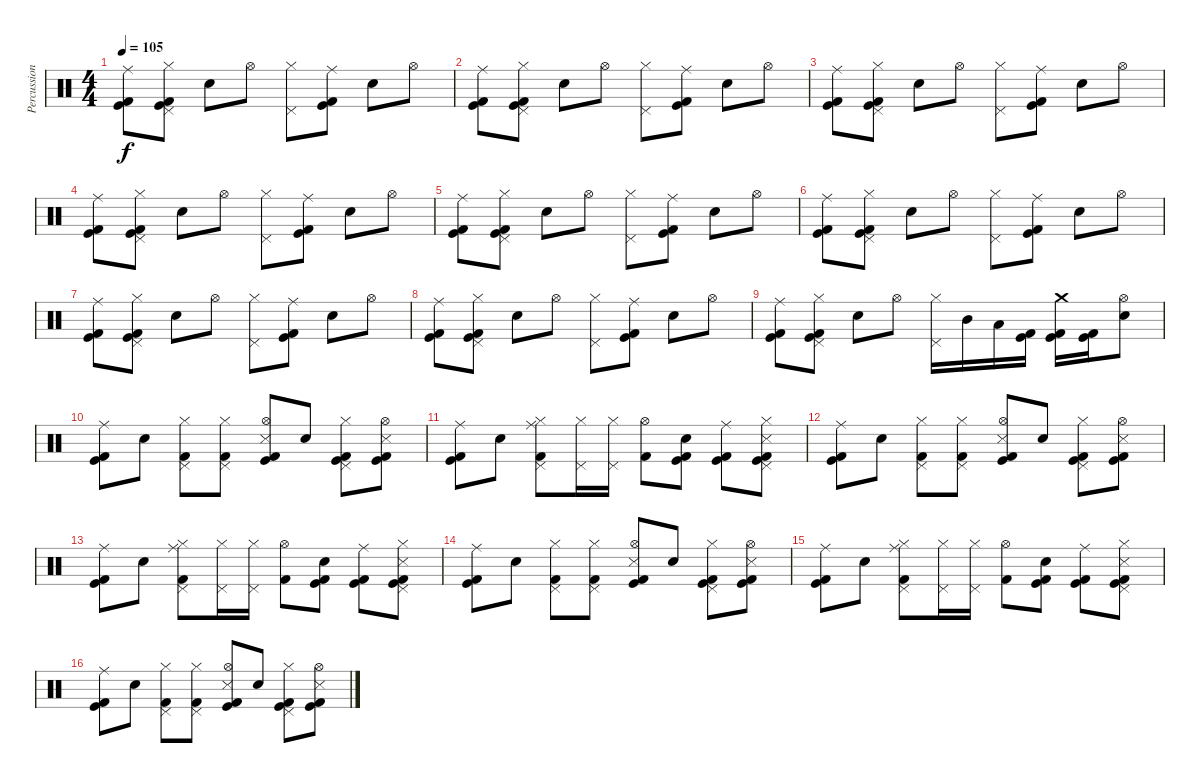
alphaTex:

\track ("Percussion" "Percussion") {instrument percussion}
\staff {score}
\articulation defaults
\ts (4 4)
\tempo 105
\clef neutral
\ks c
("Ride (middle)" "Kick (hit)" "Kick (hit) 2").8{dy f} ("Kick (hit) 2" "Kick (hit)" "Pedal Hi-Hat (hit)" "Hi-Hat (closed)").8 "Snare (hit) 2".8 "Hi-Hat (open)".8 ("Pedal Hi-Hat (hit)" "Hi-Hat (closed)").8 ("Kick (hit) 2" "Kick (hit)" "Ride (middle)").8 "Snare (hit) 2".8 "Hi-Hat (open)".8 |
("Ride (middle)" "Kick (hit)" "Kick (hit) 2").8 ("Kick (hit) 2" "Kick (hit)" "Pedal Hi-Hat (hit)" "Hi-Hat (closed)").8 "Snare (hit) 2".8 "Hi-Hat (open)".8 ("Pedal Hi-Hat (hit)" "Hi-Hat (closed)").8 ("Kick (hit) 2" "Kick (hit)" "Ride (middle)").8 "Snare (hit) 2".8 "Hi-Hat (open)".8 |
("Ride (middle)" "Kick (hit)" "Kick (hit) 2").8 ("Kick (hit) 2" "Kick (hit)" "Pedal Hi-Hat (hit)" "Hi-Hat (closed)").8 "Snare (hit) 2".8 "Hi-Hat (open)".8 ("Pedal Hi-Hat (hit)" "Hi-Hat (closed)").8 ("Kick (hit) 2" "Kick (hit)" "Ride (middle)").8 "Snare (hit) 2".8 "Hi-Hat (open)".8 |
("Ride (middle)" "Kick (hit)" "Kick (hit) 2").8 ("Kick (hit) 2" "Kick (hit)" "Pedal Hi-Hat (hit)" "Hi-Hat (closed)").8 "Snare (hit) 2".8 "Hi-Hat (open)".8 ("Pedal Hi-Hat (hit)" "Hi-Hat (closed)").8 ("Kick (hit) 2" "Kick (hit)" "Ride (middle)").8 "Snare (hit) 2".8 "Hi-Hat (open)".8 |
("Ride (middle)" "Kick (hit)" "Kick (hit) 2").8 ("Kick (hit) 2" "Kick (hit)" "Pedal Hi-Hat (hit)" "Hi-Hat (closed)").8 "Snare (hit) 2".8 "Hi-Hat (open)".8 ("Pedal Hi-Hat (hit)" "Hi-Hat (closed)").8 ("Kick (hit) 2" "Kick (hit)" "Ride (middle)").8 "Snare (hit) 2".8 "Hi-Hat (open)".8 |
("Ride (middle)" "Kick (hit)" "Kick (hit) 2").8 ("Kick (hit) 2" "Kick (hit)" "Pedal Hi-Hat (hit)" "Hi-Hat (closed)").8 "Snare (hit) 2".8 "Hi-Hat (open)".8 ("Pedal Hi-Hat (hit)" "Hi-Hat (closed)").8 ("Kick (hit) 2" "Kick (hit)" "Ride (middle)").8 "Snare (hit) 2".8 "Hi-Hat (open)".8 |
("Ride (middle)" "Kick (hit)" "Kick (hit) 2").8 ("Kick (hit) 2" "Kick (hit)" "Pedal Hi-Hat (hit)" "Hi-Hat (closed)").8 "Snare (hit) 2".8 "Hi-Hat (open)".8 ("Pedal Hi-Hat (hit)" "Hi-Hat (closed)").8 ("Kick (hit) 2" "Kick (hit)" "Ride (middle)").8 "Snare (hit) 2".8 "Hi-Hat (open)".8 |
("Ride (middle)" "Kick (hit)" "Kick (hit) 2").8 ("Kick (hit) 2" "Kick (hit)" "Pedal Hi-Hat (hit)" "Hi-Hat (closed)").8 "Snare (hit) 2".8 "Hi-Hat (open)".8 ("Pedal Hi-Hat (hit)" "Hi-Hat (closed)").8 ("Kick (hit) 2" "Kick (hit)" "Ride (middle)").8 "Snare (hit) 2".8 "Hi-Hat (open)".8 |
("Ride (middle)" "Kick (hit)" "Kick (hit) 2").8 ("Kick (hit) 2" "Kick (hit)" "Pedal Hi-Hat (hit)" "Hi-Hat (closed)").8 "Snare (hit) 2".8 "Hi-Hat (open)".8 ("Pedal Hi-Hat (hit)" "Hi-Hat (closed)").16 "Mid Tom (hit)".16 "Low Tom (hit)".16 ("Kick (hit) 2" "Kick (hit)").16 ("Kick (hit) 2" "Kick (hit)" "Crash medium (hit)").16 ("Kick (hit) 2" "Kick (hit)").16 ("Snare (hit) 2" "Hi-Hat (open)").8 |
("Ride (middle)" "Kick (hit)" "Kick (hit) 2").8{volume 16} "Snare (hit) 2".8{volume 16} ("Hi-Hat (closed)" "Pedal Hi-Hat (hit)" "Kick (hit) 2").8{volume 16} ("Hi-Hat (closed)" "Pedal Hi-Hat (hit)" "Kick (hit) 2").8{volume 16} ("Snare (side stick) 3" "Kick (hit)" "Kick (hit) 2" "Hi-Hat (open)").8{volume 16} "Snare (hit) 2".8{volume 16} ("Hi-Hat (closed)" "Pedal Hi-Hat (hit)" "Kick (hit) 2" "Kick (hit)").8{volume 16} ("Hi-Hat (open)" "Kick (hit) 2" "Kick (hit)" "Snare (side stick) 3").8{volume 16} |
("Kick (hit)" "Kick (hit) 2" "Ride (middle)").8{volume 16} "Snare (hit) 2".8{volume 16} ("Kick (hit) 2" "Ride (middle)" "Pedal Hi-Hat (hit)" "Hi-Hat (closed)").8{volume 16} ("Pedal Hi-Hat (hit)" "Hi-Hat (closed)").16{volume 16} ("Pedal Hi-Hat (hit)" "Hi-Hat (closed)").16{volume 16} ("Hi-Hat (open)" "Kick (hit) 2").8{volume 16} ("Snare (hit) 2" "Kick (hit) 2" "Kick (hit)").8{volume 16} ("Kick (hit) 2" "Kick (hit)" "Ride (middle)").8{volume 16} ("Kick (hit) 2" "Kick (hit)" "Snare (side stick) 3" "Pedal Hi-Hat (hit)" "Hi-Hat (closed)").8{volume 16} |
("Ride (middle)" "Kick (hit)" "Kick (hit) 2").8{volume 16} "Snare (hit) 2".8{volume 16} ("Hi-Hat (closed)" "Pedal Hi-Hat (hit)" "Kick (hit) 2").8{volume 16} ("Hi-Hat (closed)" "Pedal Hi-Hat (hit)" "Kick (hit) 2").8{volume 16} ("Snare (side stick) 3" "Kick (hit)" "Kick (hit) 2" "Hi-Hat (open)").8{volume 16} "Snare (hit) 2".8{volume 16} ("Hi-Hat (closed)" "Pedal Hi-Hat (hit)" "Kick (hit) 2" "Kick (hit)").8{volume 16} ("Hi-Hat (open)" "Kick (hit) 2" "Kick (hit)" "Snare (side stick) 3").8{volume 16} |
("Kick (hit)" "Kick (hit) 2" "Ride (middle)").8{volume 16} "Snare (hit) 2".8{volume 16} ("Kick (hit) 2" "Ride (middle)" "Pedal Hi-Hat (hit)" "Hi-Hat (closed)").8{volume 16} ("Pedal Hi-Hat (hit)" "Hi-Hat (closed)").16{volume 16} ("Pedal Hi-Hat (hit)" "Hi-Hat (closed)").16{volume 16} ("Hi-Hat (open)" "Kick (hit) 2").8{volume 16} ("Snare (hit) 2" "Kick (hit) 2" "Kick (hit)").8{volume 16} ("Kick (hit) 2" "Kick (hit)" "Ride (middle)").8{volume 16} ("Kick (hit) 2" "Kick (hit)" "Snare (side stick) 3" "Pedal Hi-Hat (hit)" "Hi-Hat (closed)").8{volume 16} |
("Ride (middle)" "Kick (hit)" "Kick (hit) 2").8{volume 16} "Snare (hit) 2".8{volume 16} ("Hi-Hat (closed)" "Pedal Hi-Hat (hit)" "Kick (hit) 2").8{volume 16} ("Hi-Hat (closed)" "Pedal Hi-Hat (hit)" "Kick (hit) 2").8{volume 16} ("Snare (side stick) 3" "Kick (hit)" "Kick (hit) 2" "Hi-Hat (open)").8{volume 16} "Snare (hit) 2".8{volume 16} ("Hi-Hat (closed)" "Pedal Hi-Hat (hit)" "Kick (hit) 2" "Kick (hit)").8{volume 16} ("Hi-Hat (open)" "Kick (hit) 2" "Kick (hit)" "Snare (side stick) 3").8{volume 16} |
("Kick (hit)" "Kick (hit) 2" "Ride (middle)").8{volume 16} "Snare (hit) 2".8{volume 16} ("Kick (hit) 2" "Ride (middle)" "Pedal Hi-Hat (hit)" "Hi-Hat (closed)").8{volume 16} ("Pedal Hi-Hat (hit)" "Hi-Hat (closed)").16{volume 16} ("Pedal Hi-Hat (hit)" "Hi-Hat (closed)").16{volume 16} ("Hi-Hat (open)" "Kick (hit) 2").8{volume 16} ("Snare (hit) 2" "Kick (hit) 2" "Kick (hit)").8{volume 16} ("Kick (hit) 2" "Kick (hit)" "Ride (middle)").8{volume 16} ("Kick (hit) 2" "Kick (hit)" "Snare (side stick) 3" "Pedal Hi-Hat (hit)" "Hi-Hat (closed)").8{volume 16} |
("Ride (middle)" "Kick (hit)" "Kick (hit) 2").8{volume 16} "Snare (hit) 2".8{volume 16} ("Hi-Hat (closed)" "Pedal Hi-Hat (hit)" "Kick (hit) 2").8{volume 16} ("Hi-Hat (closed)" "Pedal Hi-Hat (hit)" "Kick (hit) 2").8{volume 16} ("Snare (side stick) 3" "Kick (hit)" "Kick (hit) 2" "Hi-Hat (open)").8{volume 16} "Snare (hit) 2".8{volume 16} ("Hi-Hat (closed)" "Pedal Hi-Hat (hit)" "Kick (hit) 2" "Kick (hit)").8{volume 16} ("Hi-Hat (open)" "Kick (hit) 2" "Kick (hit)" "Snare (side stick) 3").8{volume 16}
